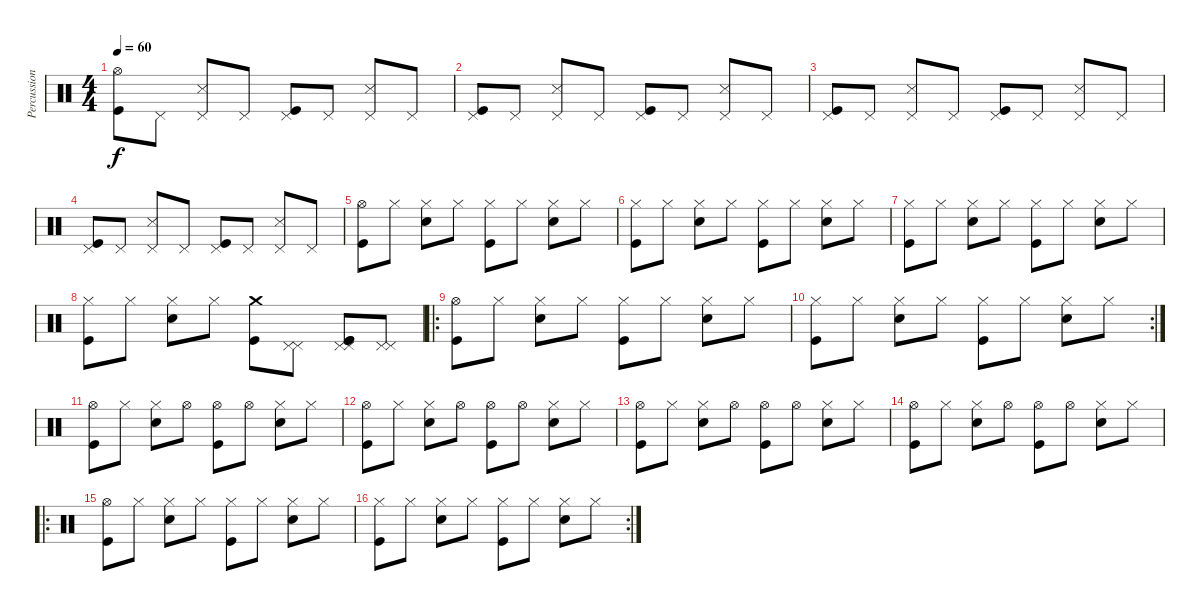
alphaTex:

\track ("Percussion" "Percussion") {instrument percussion}
\staff {score}
\articulation defaults
\ts (4 4)
\tempo 60
\clef neutral
\ks c
("Hi-Hat (open)" "Kick (hit)").8{dy f} "Pedal Hi-Hat (hit)".8 ("Pedal Hi-Hat (hit)" "Snare (side stick) 3").8 "Pedal Hi-Hat (hit)".8 ("Pedal Hi-Hat (hit)" "Kick (hit)").8 "Pedal Hi-Hat (hit)".8 ("Pedal Hi-Hat (hit)" "Snare (side stick) 3").8 "Pedal Hi-Hat (hit)".8 |
("Pedal Hi-Hat (hit)" "Kick (hit)").8 "Pedal Hi-Hat (hit)".8 ("Pedal Hi-Hat (hit)" "Snare (side stick) 3").8 "Pedal Hi-Hat (hit)".8 ("Pedal Hi-Hat (hit)" "Kick (hit)").8 "Pedal Hi-Hat (hit)".8 ("Pedal Hi-Hat (hit)" "Snare (side stick) 3").8 "Pedal Hi-Hat (hit)".8 |
("Pedal Hi-Hat (hit)" "Kick (hit)").8 "Pedal Hi-Hat (hit)".8 ("Pedal Hi-Hat (hit)" "Snare (side stick) 3").8 "Pedal Hi-Hat (hit)".8 ("Pedal Hi-Hat (hit)" "Kick (hit)").8 "Pedal Hi-Hat (hit)".8 ("Pedal Hi-Hat (hit)" "Snare (side stick) 3").8 "Pedal Hi-Hat (hit)".8 |
("Pedal Hi-Hat (hit)" "Kick (hit)").8 "Pedal Hi-Hat (hit)".8 ("Pedal Hi-Hat (hit)" "Snare (side stick) 3").8 "Pedal Hi-Hat (hit)".8 ("Pedal Hi-Hat (hit)" "Kick (hit)").8 "Pedal Hi-Hat (hit)".8 ("Pedal Hi-Hat (hit)" "Snare (side stick) 3").8 "Pedal Hi-Hat (hit)".8 |
("Hi-Hat (open)" "Kick (hit)").8 "Hi-Hat (closed)".8 ("Hi-Hat (closed)" "Electric Snare (hit)").8 "Hi-Hat (closed)".8 ("Hi-Hat (closed)" "Kick (hit)").8 "Hi-Hat (closed)".8 ("Hi-Hat (closed)" "Electric Snare (hit)").8 "Hi-Hat (closed)".8 |
("Hi-Hat (closed)" "Kick (hit)").8 "Hi-Hat (closed)".8 ("Hi-Hat (closed)" "Electric Snare (hit)").8 "Hi-Hat (closed)".8 ("Hi-Hat (closed)" "Kick (hit)").8 "Hi-Hat (closed)".8 ("Hi-Hat (closed)" "Electric Snare (hit)").8 "Hi-Hat (closed)".8 |
("Hi-Hat (closed)" "Kick (hit)").8 "Hi-Hat (closed)".8 ("Hi-Hat (closed)" "Electric Snare (hit)").8 "Hi-Hat (closed)".8 ("Hi-Hat (closed)" "Kick (hit)").8 "Hi-Hat (closed)".8 ("Hi-Hat (closed)" "Electric Snare (hit)").8 "Hi-Hat (closed)".8 |
("Hi-Hat (closed)" "Kick (hit)").8 "Hi-Hat (closed)".8 ("Hi-Hat (closed)" "Electric Snare (hit)").8 "Hi-Hat (closed)".8 ("Crash medium (hit)" "Kick (hit)").8 ("Pedal Hi-Hat (hit)" "Pedal Hi-Hat (hit)").8 ("Pedal Hi-Hat (hit)" "Pedal Hi-Hat (hit)" "Kick (hit)" "Kick (hit)").8 ("Pedal Hi-Hat (hit)" "Pedal Hi-Hat (hit)").8 |
\ro
("Hi-Hat (open)" "Kick (hit)").8 "Hi-Hat (closed)".8 ("Hi-Hat (closed)" "Electric Snare (hit)").8 "Hi-Hat (closed)".8 ("Hi-Hat (closed)" "Kick (hit)").8 "Hi-Hat (closed)".8 ("Hi-Hat (closed)" "Electric Snare (hit)").8 "Hi-Hat (closed)".8 |
\rc 2
("Hi-Hat (closed)" "Kick (hit)").8 "Hi-Hat (closed)".8 ("Hi-Hat (closed)" "Electric Snare (hit)").8 "Hi-Hat (closed)".8 ("Hi-Hat (closed)" "Kick (hit)").8 "Hi-Hat (closed)".8 ("Hi-Hat (closed)" "Electric Snare (hit)").8 "Hi-Hat (closed)".8 |
("Hi-Hat (open)" "Kick (hit)").8 "Hi-Hat (closed)".8 ("Hi-Hat (closed)" "Electric Snare (hit)").8 "Hi-Hat (open)".8 ("Hi-Hat (open)" "Kick (hit)").8 "Hi-Hat (open)".8 ("Hi-Hat (closed)" "Electric Snare (hit)").8 "Hi-Hat (closed)".8 |
("Hi-Hat (open)" "Kick (hit)").8 "Hi-Hat (closed)".8 ("Hi-Hat (closed)" "Electric Snare (hit)").8 "Hi-Hat (open)".8 ("Hi-Hat (open)" "Kick (hit)").8 "Hi-Hat (open)".8 ("Hi-Hat (closed)" "Electric Snare (hit)").8 "Hi-Hat (closed)".8 |
("Hi-Hat (open)" "Kick (hit)").8 "Hi-Hat (closed)".8 ("Hi-Hat (closed)" "Electric Snare (hit)").8 "Hi-Hat (open)".8 ("Hi-Hat (open)" "Kick (hit)").8 "Hi-Hat (open)".8 ("Hi-Hat (closed)" "Electric Snare (hit)").8 "Hi-Hat (closed)".8 |
("Hi-Hat (open)" "Kick (hit)").8 "Hi-Hat (closed)".8 ("Hi-Hat (closed)" "Electric Snare (hit)").8 "Hi-Hat (open)".8 ("Hi-Hat (open)" "Kick (hit)").8 "Hi-Hat (open)".8 ("Hi-Hat (closed)" "Electric Snare (hit)").8 "Hi-Hat (closed)".8 |
\ro
("Hi-Hat (open)" "Kick (hit)").8 "Hi-Hat (closed)".8 ("Hi-Hat (closed)" "Electric Snare (hit)").8 "Hi-Hat (closed)".8 ("Hi-Hat (closed)" "Kick (hit)").8 "Hi-Hat (closed)".8 ("Hi-Hat (closed)" "Electric Snare (hit)").8 "Hi-Hat (closed)".8 |
\rc 2
("Hi-Hat (closed)" "Kick (hit)").8 "Hi-Hat (closed)".8 ("Hi-Hat (closed)" "Electric Snare (hit)").8 "Hi-Hat (closed)".8 ("Hi-Hat (closed)" "Kick (hit)").8 "Hi-Hat (closed)".8 ("Hi-Hat (closed)" "Electric Snare (hit)").8 "Hi-Hat (closed)".8
